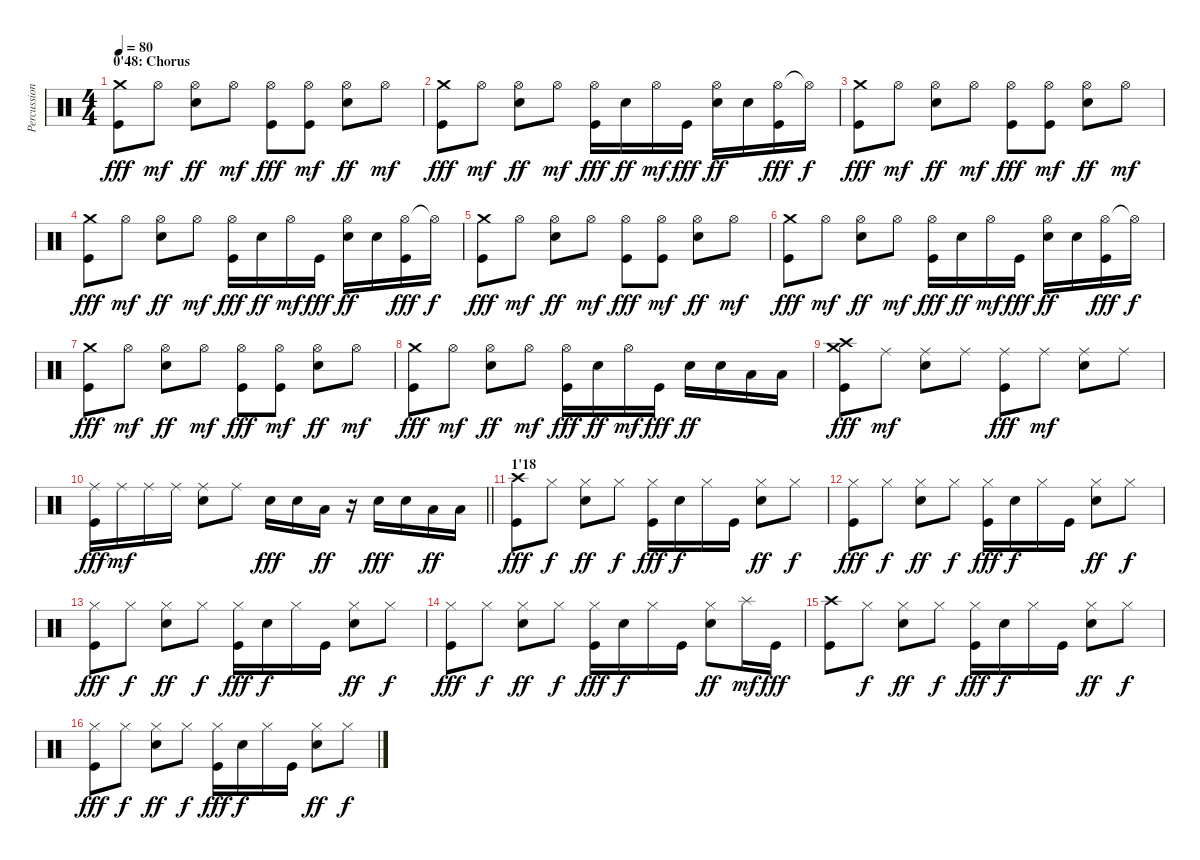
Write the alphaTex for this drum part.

\track ("Percussions" "Percussion") {instrument percussion}
\staff {score}
\articulation defaults
\ts (4 4)
\section ("" "0'48: Chorus")
\tempo 80
\clef neutral
\ks c
("Crash medium (hit)" "Kick (hit)").8{dy fff} "Hi-Hat (open)".8{dy mf} ("Hi-Hat (open)" "Snare (hit) 2").8{dy ff} "Hi-Hat (open)".8{dy mf} ("Hi-Hat (open)" "Kick (hit)").8{dy fff} ("Hi-Hat (open)" "Kick (hit)").8{dy mf} ("Hi-Hat (open)" "Snare (hit) 2").8{dy ff} "Hi-Hat (open)".8{dy mf} |
("Crash medium (hit)" "Kick (hit)").8{dy fff} "Hi-Hat (open)".8{dy mf} ("Hi-Hat (open)" "Snare (hit) 2").8{dy ff} "Hi-Hat (open)".8{dy mf} ("Hi-Hat (open)" "Kick (hit)").16{dy fff} "Snare (hit) 2".16{dy ff} "Hi-Hat (open)".16{dy mf} "Kick (hit)".16{dy fff} ("Hi-Hat (open)" "Snare (hit) 2").16{dy ff} "Snare (hit) 2".16 ("Hi-Hat (open)" "Kick (hit)").16{dy fff} "Hi-Hat (open)"{t}.16{dy f} |
("Crash medium (hit)" "Kick (hit)").8{dy fff} "Hi-Hat (open)".8{dy mf} ("Hi-Hat (open)" "Snare (hit) 2").8{dy ff} "Hi-Hat (open)".8{dy mf} ("Hi-Hat (open)" "Kick (hit)").8{dy fff} ("Hi-Hat (open)" "Kick (hit)").8{dy mf} ("Hi-Hat (open)" "Snare (hit) 2").8{dy ff} "Hi-Hat (open)".8{dy mf} |
("Crash medium (hit)" "Kick (hit)").8{dy fff} "Hi-Hat (open)".8{dy mf} ("Hi-Hat (open)" "Snare (hit) 2").8{dy ff} "Hi-Hat (open)".8{dy mf} ("Hi-Hat (open)" "Kick (hit)").16{dy fff} "Snare (hit) 2".16{dy ff} "Hi-Hat (open)".16{dy mf} "Kick (hit)".16{dy fff} ("Hi-Hat (open)" "Snare (hit) 2").16{dy ff} "Snare (hit) 2".16 ("Hi-Hat (open)" "Kick (hit)").16{dy fff} "Hi-Hat (open)"{t}.16{dy f} |
("Crash medium (hit)" "Kick (hit)").8{dy fff} "Hi-Hat (open)".8{dy mf} ("Hi-Hat (open)" "Snare (hit) 2").8{dy ff} "Hi-Hat (open)".8{dy mf} ("Hi-Hat (open)" "Kick (hit)").8{dy fff} ("Hi-Hat (open)" "Kick (hit)").8{dy mf} ("Hi-Hat (open)" "Snare (hit) 2").8{dy ff} "Hi-Hat (open)".8{dy mf} |
("Crash medium (hit)" "Kick (hit)").8{dy fff} "Hi-Hat (open)".8{dy mf} ("Hi-Hat (open)" "Snare (hit) 2").8{dy ff} "Hi-Hat (open)".8{dy mf} ("Hi-Hat (open)" "Kick (hit)").16{dy fff} "Snare (hit) 2".16{dy ff} "Hi-Hat (open)".16{dy mf} "Kick (hit)".16{dy fff} ("Hi-Hat (open)" "Snare (hit) 2").16{dy ff} "Snare (hit) 2".16 ("Hi-Hat (open)" "Kick (hit)").16{dy fff} "Hi-Hat (open)"{t}.16{dy f} |
("Crash medium (hit)" "Kick (hit)").8{dy fff} "Hi-Hat (open)".8{dy mf} ("Hi-Hat (open)" "Snare (hit) 2").8{dy ff} "Hi-Hat (open)".8{dy mf} ("Hi-Hat (open)" "Kick (hit)").8{dy fff} ("Hi-Hat (open)" "Kick (hit)").8{dy mf} ("Hi-Hat (open)" "Snare (hit) 2").8{dy ff} "Hi-Hat (open)".8{dy mf} |
("Crash medium (hit)" "Kick (hit)").8{dy fff} "Hi-Hat (open)".8{dy mf} ("Hi-Hat (open)" "Snare (hit) 2").8{dy ff} "Hi-Hat (open)".8{dy mf} ("Hi-Hat (open)" "Kick (hit)").16{dy fff} "Snare (hit) 2".16{dy ff} "Hi-Hat (open)".16{dy mf} "Kick (hit)".16{dy fff} "Snare (hit) 2".16{dy ff} "Snare (hit) 2".16 "Low Floor Tom (hit)".16 "Low Floor Tom (hit)".16 |
("Crash medium (hit)" "Crash high (hit)" "Kick (hit)").8{dy fff} "Ride (middle)".8{dy mf} ("Ride (middle)" "Snare (hit) 2").8 "Ride (middle)".8 ("Ride (middle)" "Kick (hit)").8{dy fff} "Ride (middle)".8{dy mf} ("Ride (middle)" "Snare (hit) 2").8 "Ride (middle)".8 |
\barLineRight lightlight
("Ride (middle)" "Kick (hit)").16{dy fff} "Ride (middle)".16{dy mf} "Ride (middle)".16 "Ride (middle)".16 ("Ride (middle)" "Snare (hit) 2").8 "Ride (middle)".8 "Snare (hit) 2".16{dy fff} "Snare (hit) 2".16 "Low Tom (hit)".16{dy ff} r.16 "Snare (hit) 2".16{dy fff} "Snare (hit) 2".16 "Low Tom (hit)".16{dy ff} "Low Tom (hit)".16 |
\section ("" "1'18")
("Crash high (hit)" "Kick (hit)").8{dy fff} "Hi-Hat (closed)".8{dy f} ("Hi-Hat (closed)" "Snare (hit) 2").8{dy ff} "Hi-Hat (closed)".8{dy f} ("Hi-Hat (closed)" "Kick (hit)").16{dy fff} "Snare (hit) 2".16{dy f} "Hi-Hat (closed)".16 "Kick (hit)".16 ("Hi-Hat (closed)" "Snare (hit) 2").8{dy ff} "Hi-Hat (closed)".8{dy f} |
("Hi-Hat (closed)" "Kick (hit)").8{dy fff} "Hi-Hat (closed)".8{dy f} ("Hi-Hat (closed)" "Snare (hit) 2").8{dy ff} "Hi-Hat (closed)".8{dy f} ("Hi-Hat (closed)" "Kick (hit)").16{dy fff} "Snare (hit) 2".16{dy f} "Hi-Hat (closed)".16 "Kick (hit)".16 ("Hi-Hat (closed)" "Snare (hit) 2").8{dy ff} "Hi-Hat (closed)".8{dy f} |
("Hi-Hat (closed)" "Kick (hit)").8{dy fff} "Hi-Hat (closed)".8{dy f} ("Hi-Hat (closed)" "Snare (hit) 2").8{dy ff} "Hi-Hat (closed)".8{dy f} ("Hi-Hat (closed)" "Kick (hit)").16{dy fff} "Snare (hit) 2".16{dy f} "Hi-Hat (closed)".16 "Kick (hit)".16 ("Hi-Hat (closed)" "Snare (hit) 2").8{dy ff} "Hi-Hat (closed)".8{dy f} |
("Hi-Hat (closed)" "Kick (hit)").8{dy fff} "Hi-Hat (closed)".8{dy f} ("Hi-Hat (closed)" "Snare (hit) 2").8{dy ff} "Hi-Hat (closed)".8{dy f} ("Hi-Hat (closed)" "Kick (hit)").16{dy fff} "Snare (hit) 2".16{dy f} "Hi-Hat (closed)".16 "Kick (hit)".16 ("Hi-Hat (closed)" "Snare (hit) 2").8{dy ff} "Splash (hit)".16{dy mf} "Kick (hit)".16{dy fff} |
("Crash high (hit)" "Kick (hit)").8 "Hi-Hat (closed)".8{dy f} ("Hi-Hat (closed)" "Snare (hit) 2").8{dy ff} "Hi-Hat (closed)".8{dy f} ("Hi-Hat (closed)" "Kick (hit)").16{dy fff} "Snare (hit) 2".16{dy f} "Hi-Hat (closed)".16 "Kick (hit)".16 ("Hi-Hat (closed)" "Snare (hit) 2").8{dy ff} "Hi-Hat (closed)".8{dy f} |
("Hi-Hat (closed)" "Kick (hit)").8{dy fff} "Hi-Hat (closed)".8{dy f} ("Hi-Hat (closed)" "Snare (hit) 2").8{dy ff} "Hi-Hat (closed)".8{dy f} ("Hi-Hat (closed)" "Kick (hit)").16{dy fff} "Snare (hit) 2".16{dy f} "Hi-Hat (closed)".16 "Kick (hit)".16 ("Hi-Hat (closed)" "Snare (hit) 2").8{dy ff} "Hi-Hat (closed)".8{dy f}
